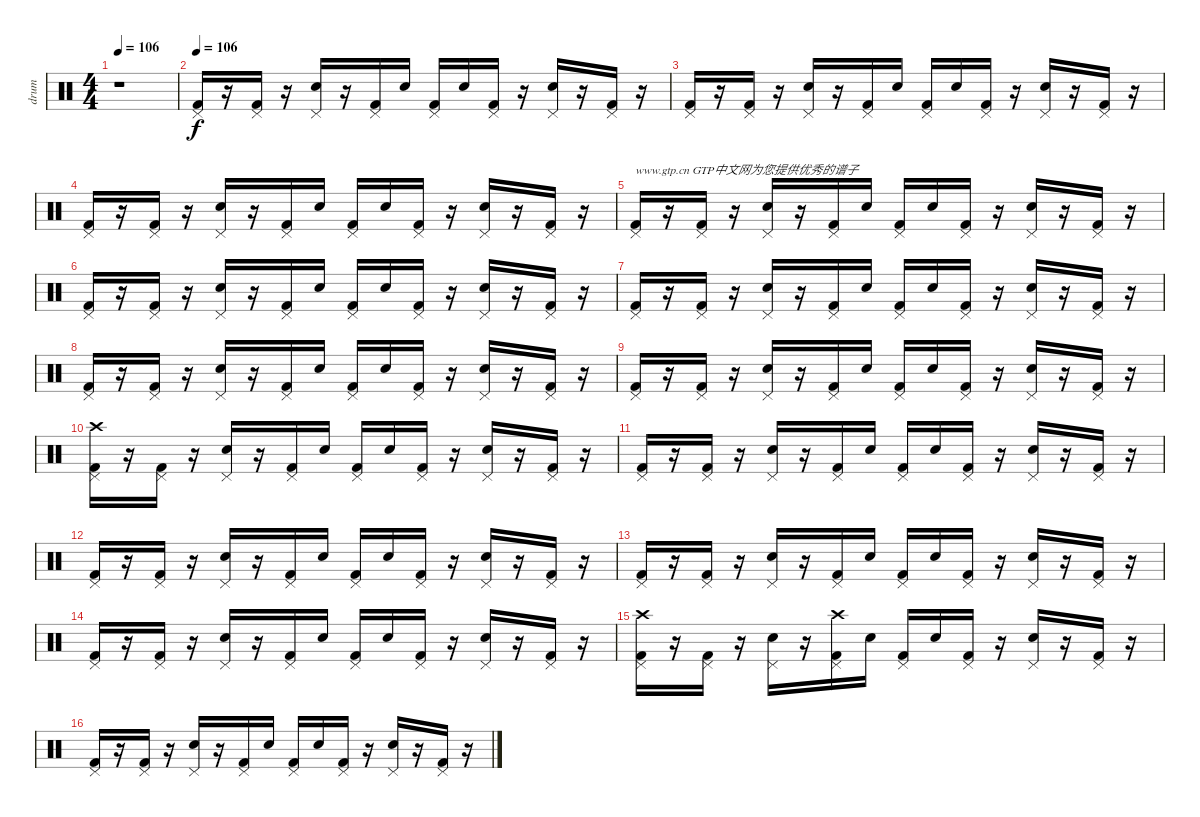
\track ("drum" "drum") {instrument percussion}
\staff {score}
\articulation defaults
\ts (4 4)
\tempo 106
\clef neutral
\ks c
r.1{dy f} |
\tempo 106
("Kick (hit) 2" "Pedal Hi-Hat (hit)").16 r.16 ("Kick (hit) 2" "Pedal Hi-Hat (hit)").16 r.16 ("Electric Snare (hit)" "Pedal Hi-Hat (hit)").16 r.16 ("Kick (hit) 2" "Pedal Hi-Hat (hit)").16 "Electric Snare (hit)".16 ("Kick (hit) 2" "Pedal Hi-Hat (hit)").16 "Electric Snare (hit)".16 ("Kick (hit) 2" "Pedal Hi-Hat (hit)").16 r.16 ("Electric Snare (hit)" "Pedal Hi-Hat (hit)").16 r.16 ("Kick (hit) 2" "Pedal Hi-Hat (hit)").16 r.16 |
("Kick (hit) 2" "Pedal Hi-Hat (hit)").16 r.16 ("Kick (hit) 2" "Pedal Hi-Hat (hit)").16 r.16 ("Electric Snare (hit)" "Pedal Hi-Hat (hit)").16 r.16 ("Kick (hit) 2" "Pedal Hi-Hat (hit)").16 "Electric Snare (hit)".16 ("Kick (hit) 2" "Pedal Hi-Hat (hit)").16 "Electric Snare (hit)".16 ("Kick (hit) 2" "Pedal Hi-Hat (hit)").16 r.16 ("Electric Snare (hit)" "Pedal Hi-Hat (hit)").16 r.16 ("Kick (hit) 2" "Pedal Hi-Hat (hit)").16 r.16 |
("Kick (hit) 2" "Pedal Hi-Hat (hit)").16 r.16 ("Kick (hit) 2" "Pedal Hi-Hat (hit)").16 r.16 ("Electric Snare (hit)" "Pedal Hi-Hat (hit)").16 r.16 ("Kick (hit) 2" "Pedal Hi-Hat (hit)").16 "Electric Snare (hit)".16 ("Kick (hit) 2" "Pedal Hi-Hat (hit)").16 "Electric Snare (hit)".16 ("Kick (hit) 2" "Pedal Hi-Hat (hit)").16 r.16 ("Electric Snare (hit)" "Pedal Hi-Hat (hit)").16 r.16 ("Kick (hit) 2" "Pedal Hi-Hat (hit)").16 r.16 |
("Kick (hit) 2" "Pedal Hi-Hat (hit)").16{txt "www.gtp.cn GTP中文网为您提供优秀的谱子"} r.16 ("Kick (hit) 2" "Pedal Hi-Hat (hit)").16 r.16 ("Electric Snare (hit)" "Pedal Hi-Hat (hit)").16 r.16 ("Kick (hit) 2" "Pedal Hi-Hat (hit)").16 "Electric Snare (hit)".16 ("Kick (hit) 2" "Pedal Hi-Hat (hit)").16 "Electric Snare (hit)".16 ("Kick (hit) 2" "Pedal Hi-Hat (hit)").16 r.16 ("Electric Snare (hit)" "Pedal Hi-Hat (hit)").16 r.16 ("Kick (hit) 2" "Pedal Hi-Hat (hit)").16 r.16 |
("Kick (hit) 2" "Pedal Hi-Hat (hit)").16 r.16 ("Kick (hit) 2" "Pedal Hi-Hat (hit)").16 r.16 ("Electric Snare (hit)" "Pedal Hi-Hat (hit)").16 r.16 ("Kick (hit) 2" "Pedal Hi-Hat (hit)").16 "Electric Snare (hit)".16 ("Kick (hit) 2" "Pedal Hi-Hat (hit)").16 "Electric Snare (hit)".16 ("Kick (hit) 2" "Pedal Hi-Hat (hit)").16 r.16 ("Electric Snare (hit)" "Pedal Hi-Hat (hit)").16 r.16 ("Kick (hit) 2" "Pedal Hi-Hat (hit)").16 r.16 |
("Kick (hit) 2" "Pedal Hi-Hat (hit)").16 r.16 ("Kick (hit) 2" "Pedal Hi-Hat (hit)").16 r.16 ("Electric Snare (hit)" "Pedal Hi-Hat (hit)").16 r.16 ("Kick (hit) 2" "Pedal Hi-Hat (hit)").16 "Electric Snare (hit)".16 ("Kick (hit) 2" "Pedal Hi-Hat (hit)").16 "Electric Snare (hit)".16 ("Kick (hit) 2" "Pedal Hi-Hat (hit)").16 r.16 ("Electric Snare (hit)" "Pedal Hi-Hat (hit)").16 r.16 ("Kick (hit) 2" "Pedal Hi-Hat (hit)").16 r.16 |
("Kick (hit) 2" "Pedal Hi-Hat (hit)").16 r.16 ("Kick (hit) 2" "Pedal Hi-Hat (hit)").16 r.16 ("Electric Snare (hit)" "Pedal Hi-Hat (hit)").16 r.16 ("Kick (hit) 2" "Pedal Hi-Hat (hit)").16 "Electric Snare (hit)".16 ("Kick (hit) 2" "Pedal Hi-Hat (hit)").16 "Electric Snare (hit)".16 ("Kick (hit) 2" "Pedal Hi-Hat (hit)").16 r.16 ("Electric Snare (hit)" "Pedal Hi-Hat (hit)").16 r.16 ("Kick (hit) 2" "Pedal Hi-Hat (hit)").16 r.16 |
("Kick (hit) 2" "Pedal Hi-Hat (hit)").16 r.16 ("Kick (hit) 2" "Pedal Hi-Hat (hit)").16 r.16 ("Electric Snare (hit)" "Pedal Hi-Hat (hit)").16 r.16 ("Kick (hit) 2" "Pedal Hi-Hat (hit)").16 "Electric Snare (hit)".16 ("Kick (hit) 2" "Pedal Hi-Hat (hit)").16 "Electric Snare (hit)".16 ("Kick (hit) 2" "Pedal Hi-Hat (hit)").16 r.16 ("Electric Snare (hit)" "Pedal Hi-Hat (hit)").16 r.16 ("Kick (hit) 2" "Pedal Hi-Hat (hit)").16 r.16 |
("Kick (hit) 2" "Pedal Hi-Hat (hit)" "Crash high (hit)").16 r.16 ("Kick (hit) 2" "Pedal Hi-Hat (hit)").16 r.16 ("Electric Snare (hit)" "Pedal Hi-Hat (hit)").16 r.16 ("Kick (hit) 2" "Pedal Hi-Hat (hit)").16 "Electric Snare (hit)".16 ("Kick (hit) 2" "Pedal Hi-Hat (hit)").16 "Electric Snare (hit)".16 ("Kick (hit) 2" "Pedal Hi-Hat (hit)").16 r.16 ("Electric Snare (hit)" "Pedal Hi-Hat (hit)").16 r.16 ("Kick (hit) 2" "Pedal Hi-Hat (hit)").16 r.16 |
("Kick (hit) 2" "Pedal Hi-Hat (hit)").16 r.16 ("Kick (hit) 2" "Pedal Hi-Hat (hit)").16 r.16 ("Electric Snare (hit)" "Pedal Hi-Hat (hit)").16 r.16 ("Kick (hit) 2" "Pedal Hi-Hat (hit)").16 "Electric Snare (hit)".16 ("Kick (hit) 2" "Pedal Hi-Hat (hit)").16 "Electric Snare (hit)".16 ("Kick (hit) 2" "Pedal Hi-Hat (hit)").16 r.16 ("Electric Snare (hit)" "Pedal Hi-Hat (hit)").16 r.16 ("Kick (hit) 2" "Pedal Hi-Hat (hit)").16 r.16 |
("Kick (hit) 2" "Pedal Hi-Hat (hit)").16 r.16 ("Kick (hit) 2" "Pedal Hi-Hat (hit)").16 r.16 ("Electric Snare (hit)" "Pedal Hi-Hat (hit)").16 r.16 ("Kick (hit) 2" "Pedal Hi-Hat (hit)").16 "Electric Snare (hit)".16 ("Kick (hit) 2" "Pedal Hi-Hat (hit)").16 "Electric Snare (hit)".16 ("Kick (hit) 2" "Pedal Hi-Hat (hit)").16 r.16 ("Electric Snare (hit)" "Pedal Hi-Hat (hit)").16 r.16 ("Kick (hit) 2" "Pedal Hi-Hat (hit)").16 r.16 |
("Kick (hit) 2" "Pedal Hi-Hat (hit)").16 r.16 ("Kick (hit) 2" "Pedal Hi-Hat (hit)").16 r.16 ("Electric Snare (hit)" "Pedal Hi-Hat (hit)").16 r.16 ("Kick (hit) 2" "Pedal Hi-Hat (hit)").16 "Electric Snare (hit)".16 ("Kick (hit) 2" "Pedal Hi-Hat (hit)").16 "Electric Snare (hit)".16 ("Kick (hit) 2" "Pedal Hi-Hat (hit)").16 r.16 ("Electric Snare (hit)" "Pedal Hi-Hat (hit)").16 r.16 ("Kick (hit) 2" "Pedal Hi-Hat (hit)").16 r.16 |
("Kick (hit) 2" "Pedal Hi-Hat (hit)").16 r.16 ("Kick (hit) 2" "Pedal Hi-Hat (hit)").16 r.16 ("Electric Snare (hit)" "Pedal Hi-Hat (hit)").16 r.16 ("Kick (hit) 2" "Pedal Hi-Hat (hit)").16 "Electric Snare (hit)".16 ("Kick (hit) 2" "Pedal Hi-Hat (hit)").16 "Electric Snare (hit)".16 ("Kick (hit) 2" "Pedal Hi-Hat (hit)").16 r.16 ("Electric Snare (hit)" "Pedal Hi-Hat (hit)").16 r.16 ("Kick (hit) 2" "Pedal Hi-Hat (hit)").16 r.16 |
("Kick (hit) 2" "Pedal Hi-Hat (hit)" "Crash high (hit)").16 r.16 ("Kick (hit) 2" "Pedal Hi-Hat (hit)").16 r.16 ("Electric Snare (hit)" "Pedal Hi-Hat (hit)").16 r.16 ("Kick (hit) 2" "Pedal Hi-Hat (hit)" "Crash high (hit)").16 "Electric Snare (hit)".16 ("Kick (hit) 2" "Pedal Hi-Hat (hit)").16 "Electric Snare (hit)".16 ("Kick (hit) 2" "Pedal Hi-Hat (hit)").16 r.16 ("Electric Snare (hit)" "Pedal Hi-Hat (hit)").16 r.16 ("Kick (hit) 2" "Pedal Hi-Hat (hit)").16 r.16 |
("Kick (hit) 2" "Pedal Hi-Hat (hit)").16 r.16 ("Kick (hit) 2" "Pedal Hi-Hat (hit)").16 r.16 ("Electric Snare (hit)" "Pedal Hi-Hat (hit)").16 r.16 ("Kick (hit) 2" "Pedal Hi-Hat (hit)").16 "Electric Snare (hit)".16 ("Kick (hit) 2" "Pedal Hi-Hat (hit)").16 "Electric Snare (hit)".16 ("Kick (hit) 2" "Pedal Hi-Hat (hit)").16 r.16 ("Electric Snare (hit)" "Pedal Hi-Hat (hit)").16 r.16 ("Kick (hit) 2" "Pedal Hi-Hat (hit)").16 r.16
